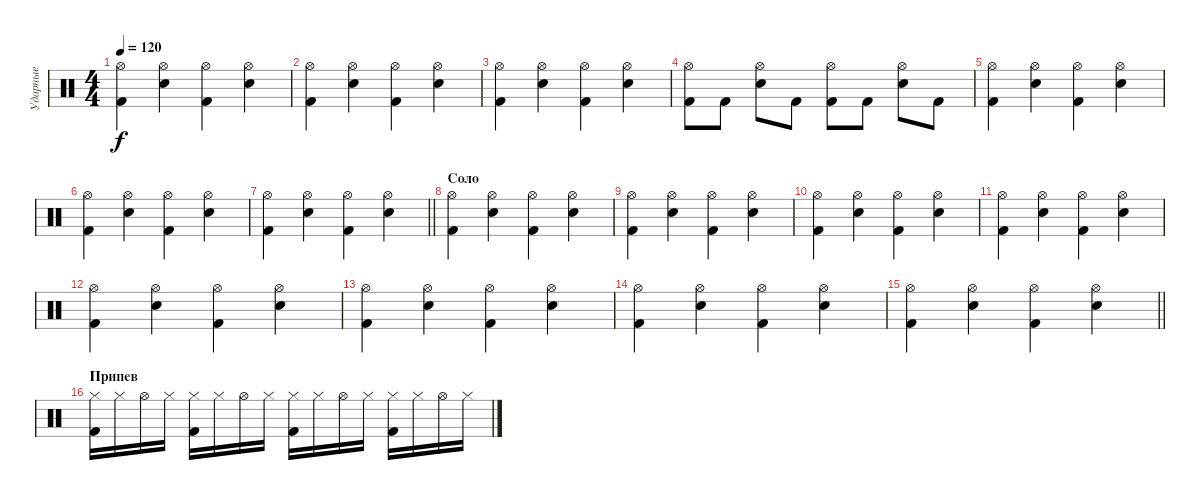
\track ("Ударные" "Ударные") {instrument percussion}
\staff {score}
\articulation defaults
\ts (4 4)
\tempo 120
\clef neutral
\ks c
("Hi-Hat (open)" "Kick (hit) 2").4{dy f} ("Hi-Hat (open)" "Snare (hit) 2").4 ("Hi-Hat (open)" "Kick (hit) 2").4 ("Hi-Hat (open)" "Snare (hit) 2").4 |
("Hi-Hat (open)" "Kick (hit) 2").4 ("Hi-Hat (open)" "Snare (hit) 2").4 ("Hi-Hat (open)" "Kick (hit) 2").4 ("Hi-Hat (open)" "Snare (hit) 2").4 |
("Hi-Hat (open)" "Kick (hit) 2").4 ("Hi-Hat (open)" "Snare (hit) 2").4 ("Hi-Hat (open)" "Kick (hit) 2").4 ("Hi-Hat (open)" "Snare (hit) 2").4 |
("Hi-Hat (open)" "Kick (hit) 2").8 "Kick (hit) 2".8 ("Hi-Hat (open)" "Snare (hit) 2").8 "Kick (hit) 2".8 ("Hi-Hat (open)" "Kick (hit) 2").8 "Kick (hit) 2".8 ("Hi-Hat (open)" "Snare (hit) 2").8 "Kick (hit) 2".8 |
("Hi-Hat (open)" "Kick (hit) 2").4 ("Hi-Hat (open)" "Snare (hit) 2").4 ("Hi-Hat (open)" "Kick (hit) 2").4 ("Hi-Hat (open)" "Snare (hit) 2").4 |
("Hi-Hat (open)" "Kick (hit) 2").4 ("Hi-Hat (open)" "Snare (hit) 2").4 ("Hi-Hat (open)" "Kick (hit) 2").4 ("Hi-Hat (open)" "Snare (hit) 2").4 |
\barLineRight lightlight
("Hi-Hat (open)" "Kick (hit) 2").4 ("Hi-Hat (open)" "Snare (hit) 2").4 ("Hi-Hat (open)" "Kick (hit) 2").4 ("Hi-Hat (open)" "Snare (hit) 2").4 |
\section ("" "Соло")
("Hi-Hat (open)" "Kick (hit) 2").4 ("Hi-Hat (open)" "Snare (hit) 2").4 ("Hi-Hat (open)" "Kick (hit) 2").4 ("Hi-Hat (open)" "Snare (hit) 2").4 |
("Hi-Hat (open)" "Kick (hit) 2").4 ("Hi-Hat (open)" "Snare (hit) 2").4 ("Hi-Hat (open)" "Kick (hit) 2").4 ("Hi-Hat (open)" "Snare (hit) 2").4 |
("Hi-Hat (open)" "Kick (hit) 2").4 ("Hi-Hat (open)" "Snare (hit) 2").4 ("Hi-Hat (open)" "Kick (hit) 2").4 ("Hi-Hat (open)" "Snare (hit) 2").4 |
("Hi-Hat (open)" "Kick (hit) 2").4 ("Hi-Hat (open)" "Snare (hit) 2").4 ("Hi-Hat (open)" "Kick (hit) 2").4 ("Hi-Hat (open)" "Snare (hit) 2").4 |
("Hi-Hat (open)" "Kick (hit) 2").4 ("Hi-Hat (open)" "Snare (hit) 2").4 ("Hi-Hat (open)" "Kick (hit) 2").4 ("Hi-Hat (open)" "Snare (hit) 2").4 |
("Hi-Hat (open)" "Kick (hit) 2").4 ("Hi-Hat (open)" "Snare (hit) 2").4 ("Hi-Hat (open)" "Kick (hit) 2").4 ("Hi-Hat (open)" "Snare (hit) 2").4 |
("Hi-Hat (open)" "Kick (hit) 2").4 ("Hi-Hat (open)" "Snare (hit) 2").4 ("Hi-Hat (open)" "Kick (hit) 2").4 ("Hi-Hat (open)" "Snare (hit) 2").4 |
\barLineRight lightlight
("Hi-Hat (open)" "Kick (hit) 2").4 ("Hi-Hat (open)" "Snare (hit) 2").4 ("Hi-Hat (open)" "Kick (hit) 2").4 ("Hi-Hat (open)" "Snare (hit) 2").4 |
\section ("" "Припев")
("Hi-Hat (closed)" "Kick (hit) 2").16 "Hi-Hat (closed)".16 "Hi-Hat (open)".16 "Hi-Hat (closed)".16 ("Hi-Hat (closed)" "Kick (hit) 2").16 "Hi-Hat (closed)".16 "Hi-Hat (open)".16 "Hi-Hat (closed)".16 ("Hi-Hat (closed)" "Kick (hit) 2").16 "Hi-Hat (closed)".16 "Hi-Hat (open)".16 "Hi-Hat (closed)".16 ("Hi-Hat (closed)" "Kick (hit) 2").16 "Hi-Hat (closed)".16 "Hi-Hat (open)".16 "Hi-Hat (closed)".16
